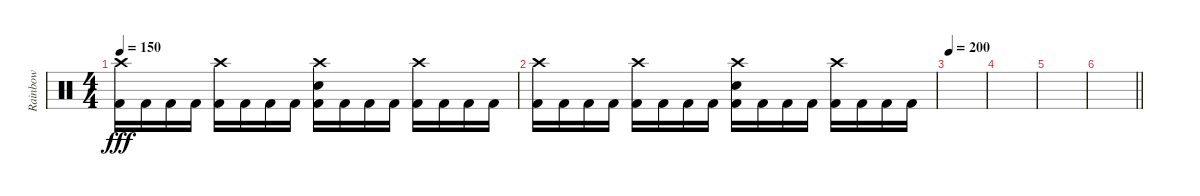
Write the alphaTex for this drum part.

\track ("Rainbow" "Rainbow") {instrument percussion}
\staff {score}
\articulation defaults
\ts (4 4)
\tempo 150
\clef neutral
\ks c
("Crash high (hit)" "Kick (hit) 2").16{dy fff} "Kick (hit) 2".16 "Kick (hit) 2".16 "Kick (hit) 2".16 ("Crash high (hit)" "Kick (hit) 2").16 "Kick (hit) 2".16 "Kick (hit) 2".16 "Kick (hit) 2".16 ("Crash high (hit)" "Snare (hit) 2" "Kick (hit) 2").16 "Kick (hit) 2".16 "Kick (hit) 2".16 "Kick (hit) 2".16 ("Crash high (hit)" "Kick (hit) 2").16 "Kick (hit) 2".16 "Kick (hit) 2".16 "Kick (hit) 2".16 |
("Crash high (hit)" "Kick (hit) 2").16 "Kick (hit) 2".16 "Kick (hit) 2".16 "Kick (hit) 2".16 ("Crash high (hit)" "Kick (hit) 2").16 "Kick (hit) 2".16 "Kick (hit) 2".16 "Kick (hit) 2".16 ("Crash high (hit)" "Snare (hit) 2" "Kick (hit) 2").16 "Kick (hit) 2".16 "Kick (hit) 2".16 "Kick (hit) 2".16 ("Crash high (hit)" "Kick (hit) 2").16 "Kick (hit) 2".16 "Kick (hit) 2".16 "Kick (hit) 2".16 |
\tempo 200
|
|
|
\barLineRight lightlight
